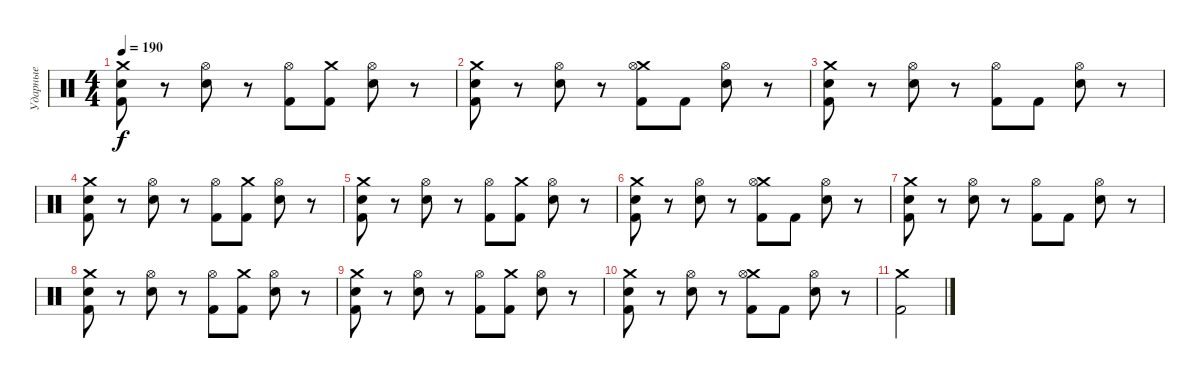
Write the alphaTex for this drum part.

\track ("Ударные" "Ударные") {instrument percussion}
\staff {score}
\articulation defaults
\ts (4 4)
\tempo 190
\clef neutral
\ks c
("Crash medium (hit)" "Electric Snare (hit)" "Kick (hit) 2").8{dy f} r.8 ("Electric Snare (hit)" "Hi-Hat (open)").8 r.8 ("Kick (hit) 2" "Hi-Hat (open)").8 ("Kick (hit) 2" "Crash medium (hit)").8 ("Electric Snare (hit)" "Hi-Hat (open)").8 r.8 |
("Crash medium (hit)" "Electric Snare (hit)" "Kick (hit) 2").8 r.8 ("Electric Snare (hit)" "Hi-Hat (open)").8 r.8 ("Kick (hit) 2" "Crash medium (hit)" "Hi-Hat (open)").8 "Kick (hit) 2".8 ("Electric Snare (hit)" "Hi-Hat (open)").8 r.8 |
("Crash medium (hit)" "Electric Snare (hit)" "Kick (hit) 2").8 r.8 ("Electric Snare (hit)" "Hi-Hat (open)").8 r.8 ("Kick (hit) 2" "Hi-Hat (open)").8 "Kick (hit) 2".8 ("Electric Snare (hit)" "Hi-Hat (open)").8 r.8 |
("Crash medium (hit)" "Electric Snare (hit)" "Kick (hit) 2").8 r.8 ("Electric Snare (hit)" "Hi-Hat (open)").8 r.8 ("Kick (hit) 2" "Hi-Hat (open)").8 ("Kick (hit) 2" "Crash medium (hit)").8 ("Electric Snare (hit)" "Hi-Hat (open)").8 r.8 |
("Crash medium (hit)" "Electric Snare (hit)" "Kick (hit) 2").8 r.8 ("Electric Snare (hit)" "Hi-Hat (open)").8 r.8 ("Kick (hit) 2" "Hi-Hat (open)").8 ("Kick (hit) 2" "Crash medium (hit)").8 ("Electric Snare (hit)" "Hi-Hat (open)").8 r.8 |
("Crash medium (hit)" "Electric Snare (hit)" "Kick (hit) 2").8 r.8 ("Electric Snare (hit)" "Hi-Hat (open)").8 r.8 ("Kick (hit) 2" "Crash medium (hit)" "Hi-Hat (open)").8 "Kick (hit) 2".8 ("Electric Snare (hit)" "Hi-Hat (open)").8 r.8 |
("Crash medium (hit)" "Electric Snare (hit)" "Kick (hit) 2").8 r.8 ("Electric Snare (hit)" "Hi-Hat (open)").8 r.8 ("Kick (hit) 2" "Hi-Hat (open)").8 "Kick (hit) 2".8 ("Electric Snare (hit)" "Hi-Hat (open)").8 r.8 |
("Crash medium (hit)" "Electric Snare (hit)" "Kick (hit) 2").8 r.8 ("Electric Snare (hit)" "Hi-Hat (open)").8 r.8 ("Kick (hit) 2" "Hi-Hat (open)").8 ("Kick (hit) 2" "Crash medium (hit)").8 ("Electric Snare (hit)" "Hi-Hat (open)").8 r.8 |
("Crash medium (hit)" "Electric Snare (hit)" "Kick (hit) 2").8 r.8 ("Electric Snare (hit)" "Hi-Hat (open)").8 r.8 ("Kick (hit) 2" "Hi-Hat (open)").8 ("Kick (hit) 2" "Crash medium (hit)").8 ("Electric Snare (hit)" "Hi-Hat (open)").8 r.8 |
("Crash medium (hit)" "Electric Snare (hit)" "Kick (hit) 2").8 r.8 ("Electric Snare (hit)" "Hi-Hat (open)").8 r.8 ("Kick (hit) 2" "Crash medium (hit)" "Hi-Hat (open)").8 "Kick (hit) 2".8 ("Electric Snare (hit)" "Hi-Hat (open)").8 r.8 |
("Kick (hit) 2" "Crash medium (hit)").2
